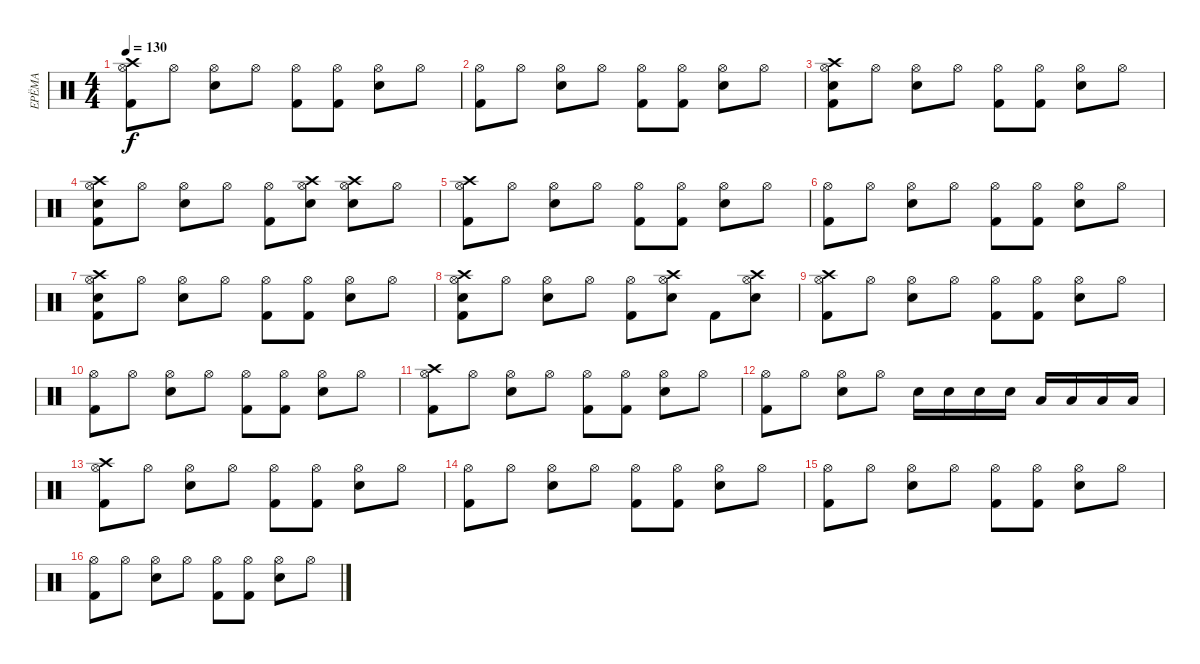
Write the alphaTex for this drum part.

\track ("ЕРЁМА" "ЕРЁМА") {instrument percussion}
\staff {score}
\articulation defaults
\ts (4 4)
\tempo 130
\clef neutral
\ks c
("Hi-Hat (open)" "Kick (hit) 2" "Crash high (hit)").8{dy f} "Hi-Hat (open)".8 ("Hi-Hat (open)" "Electric Snare (hit)").8 "Hi-Hat (open)".8 ("Hi-Hat (open)" "Kick (hit) 2").8 ("Hi-Hat (open)" "Kick (hit) 2").8 ("Hi-Hat (open)" "Electric Snare (hit)").8 "Hi-Hat (open)".8 |
("Hi-Hat (open)" "Kick (hit) 2").8 "Hi-Hat (open)".8 ("Hi-Hat (open)" "Electric Snare (hit)").8 "Hi-Hat (open)".8 ("Hi-Hat (open)" "Kick (hit) 2").8 ("Hi-Hat (open)" "Kick (hit) 2").8 ("Hi-Hat (open)" "Electric Snare (hit)").8 "Hi-Hat (open)".8 |
("Hi-Hat (open)" "Kick (hit) 2" "Crash high (hit)" "Electric Snare (hit)").8 "Hi-Hat (open)".8 ("Hi-Hat (open)" "Electric Snare (hit)").8 "Hi-Hat (open)".8 ("Hi-Hat (open)" "Kick (hit) 2").8 ("Hi-Hat (open)" "Kick (hit) 2").8 ("Hi-Hat (open)" "Electric Snare (hit)").8 "Hi-Hat (open)".8 |
("Hi-Hat (open)" "Kick (hit) 2" "Electric Snare (hit)" "Crash high (hit)").8 "Hi-Hat (open)".8 ("Hi-Hat (open)" "Electric Snare (hit)").8 "Hi-Hat (open)".8 ("Hi-Hat (open)" "Kick (hit) 2").8 ("Hi-Hat (open)" "Electric Snare (hit)" "Crash high (hit)").8 ("Hi-Hat (open)" "Electric Snare (hit)" "Crash high (hit)").8 "Hi-Hat (open)".8 |
("Hi-Hat (open)" "Kick (hit) 2" "Crash high (hit)").8 "Hi-Hat (open)".8 ("Hi-Hat (open)" "Electric Snare (hit)").8 "Hi-Hat (open)".8 ("Hi-Hat (open)" "Kick (hit) 2").8 ("Hi-Hat (open)" "Kick (hit) 2").8 ("Hi-Hat (open)" "Electric Snare (hit)").8 "Hi-Hat (open)".8 |
("Hi-Hat (open)" "Kick (hit) 2").8 "Hi-Hat (open)".8 ("Hi-Hat (open)" "Electric Snare (hit)").8 "Hi-Hat (open)".8 ("Hi-Hat (open)" "Kick (hit) 2").8 ("Hi-Hat (open)" "Kick (hit) 2").8 ("Hi-Hat (open)" "Electric Snare (hit)").8 "Hi-Hat (open)".8 |
("Hi-Hat (open)" "Kick (hit) 2" "Crash high (hit)" "Electric Snare (hit)").8 "Hi-Hat (open)".8 ("Hi-Hat (open)" "Electric Snare (hit)").8 "Hi-Hat (open)".8 ("Hi-Hat (open)" "Kick (hit) 2").8 ("Hi-Hat (open)" "Kick (hit) 2").8 ("Hi-Hat (open)" "Electric Snare (hit)").8 "Hi-Hat (open)".8 |
("Hi-Hat (open)" "Kick (hit) 2" "Electric Snare (hit)" "Crash high (hit)").8 "Hi-Hat (open)".8 ("Hi-Hat (open)" "Electric Snare (hit)").8 "Hi-Hat (open)".8 ("Hi-Hat (open)" "Kick (hit) 2").8 ("Hi-Hat (open)" "Electric Snare (hit)" "Crash high (hit)").8 "Kick (hit) 2".8 ("Hi-Hat (open)" "Electric Snare (hit)" "Crash high (hit)").8 |
("Hi-Hat (open)" "Kick (hit) 2" "Crash high (hit)").8 "Hi-Hat (open)".8 ("Hi-Hat (open)" "Electric Snare (hit)").8 "Hi-Hat (open)".8 ("Hi-Hat (open)" "Kick (hit) 2").8 ("Hi-Hat (open)" "Kick (hit) 2").8 ("Hi-Hat (open)" "Electric Snare (hit)").8 "Hi-Hat (open)".8 |
("Hi-Hat (open)" "Kick (hit) 2").8 "Hi-Hat (open)".8 ("Hi-Hat (open)" "Electric Snare (hit)").8 "Hi-Hat (open)".8 ("Hi-Hat (open)" "Kick (hit) 2").8 ("Hi-Hat (open)" "Kick (hit) 2").8 ("Hi-Hat (open)" "Electric Snare (hit)").8 "Hi-Hat (open)".8 |
("Hi-Hat (open)" "Kick (hit) 2" "Crash high (hit)").8 "Hi-Hat (open)".8 ("Hi-Hat (open)" "Electric Snare (hit)").8 "Hi-Hat (open)".8 ("Hi-Hat (open)" "Kick (hit) 2").8 ("Hi-Hat (open)" "Kick (hit) 2").8 ("Hi-Hat (open)" "Electric Snare (hit)").8 "Hi-Hat (open)".8 |
("Hi-Hat (open)" "Kick (hit) 2").8 "Hi-Hat (open)".8 ("Hi-Hat (open)" "Electric Snare (hit)").8 "Hi-Hat (open)".8 "Electric Snare (hit)".16 "Electric Snare (hit)".16 "Electric Snare (hit)".16 "Electric Snare (hit)".16 "Low Tom (hit)".16 "Low Tom (hit)".16 "Low Tom (hit)".16 "Low Tom (hit)".16 |
("Hi-Hat (open)" "Kick (hit) 2" "Crash high (hit)").8 "Hi-Hat (open)".8 ("Hi-Hat (open)" "Electric Snare (hit)").8 "Hi-Hat (open)".8 ("Hi-Hat (open)" "Kick (hit) 2").8 ("Hi-Hat (open)" "Kick (hit) 2").8 ("Hi-Hat (open)" "Electric Snare (hit)").8 "Hi-Hat (open)".8 |
("Hi-Hat (open)" "Kick (hit) 2").8 "Hi-Hat (open)".8 ("Hi-Hat (open)" "Electric Snare (hit)").8 "Hi-Hat (open)".8 ("Hi-Hat (open)" "Kick (hit) 2").8 ("Hi-Hat (open)" "Kick (hit) 2").8 ("Hi-Hat (open)" "Electric Snare (hit)").8 "Hi-Hat (open)".8 |
("Hi-Hat (open)" "Kick (hit) 2").8 "Hi-Hat (open)".8 ("Hi-Hat (open)" "Electric Snare (hit)").8 "Hi-Hat (open)".8 ("Hi-Hat (open)" "Kick (hit) 2").8 ("Hi-Hat (open)" "Kick (hit) 2").8 ("Hi-Hat (open)" "Electric Snare (hit)").8 "Hi-Hat (open)".8 |
("Hi-Hat (open)" "Kick (hit) 2").8 "Hi-Hat (open)".8 ("Hi-Hat (open)" "Electric Snare (hit)").8 "Hi-Hat (open)".8 ("Hi-Hat (open)" "Kick (hit) 2").8 ("Hi-Hat (open)" "Kick (hit) 2").8 ("Hi-Hat (open)" "Electric Snare (hit)").8 "Hi-Hat (open)".8
